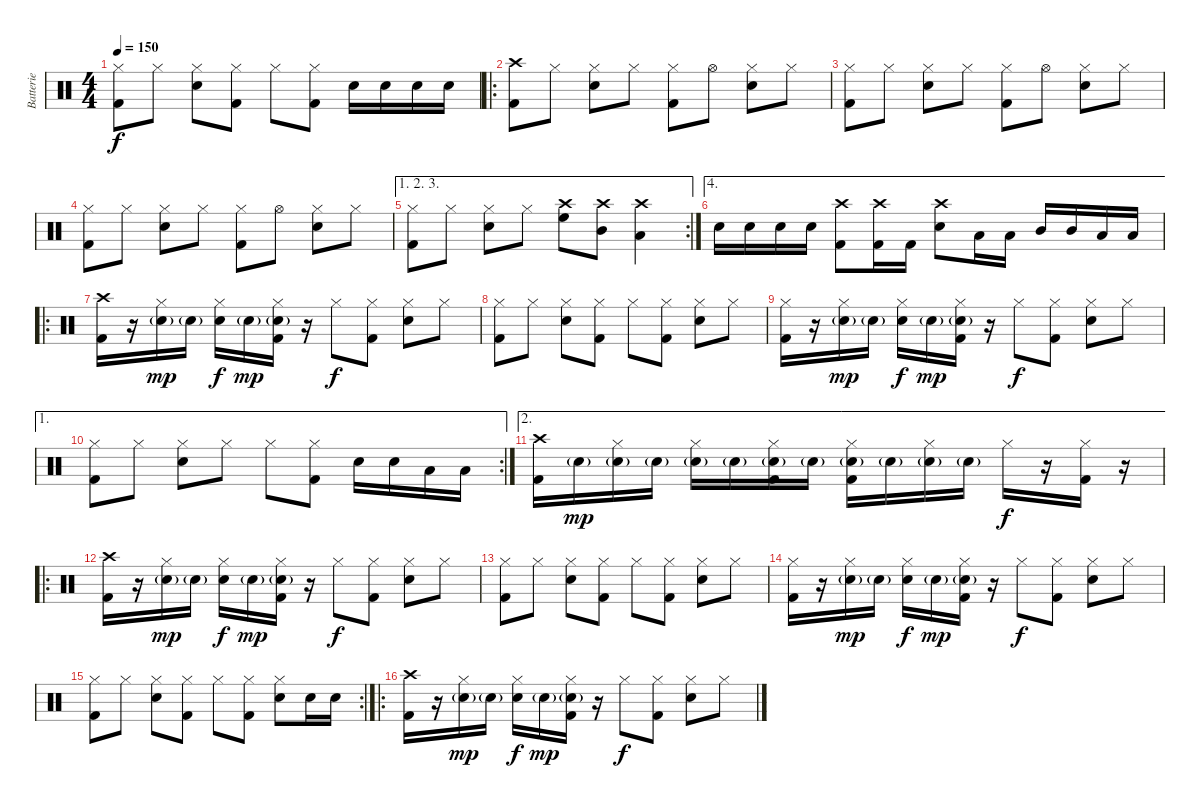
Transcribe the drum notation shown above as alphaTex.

\track ("Batterie" "Batterie") {instrument percussion}
\staff {score}
\articulation defaults
\ts (4 4)
\tempo 150
\clef neutral
\ks c
("Hi-Hat (closed)" "Kick (hit) 2").8{dy f} "Hi-Hat (closed)".8 ("Hi-Hat (closed)" "Snare (hit) 2").8 ("Hi-Hat (closed)" "Kick (hit) 2").8 "Hi-Hat (closed)".8 ("Hi-Hat (closed)" "Kick (hit) 2").8 "Snare (hit) 2".16 "Snare (hit) 2".16 "Snare (hit) 2".16 "Snare (hit) 2".16 |
\ro
("Crash high (hit)" "Kick (hit) 2").8 "Hi-Hat (closed)".8 ("Hi-Hat (closed)" "Snare (hit) 2").8 "Hi-Hat (closed)".8 ("Hi-Hat (closed)" "Kick (hit) 2").8 "Hi-Hat (open)".8 ("Hi-Hat (closed)" "Snare (hit) 2").8 "Hi-Hat (closed)".8 |
("Hi-Hat (closed)" "Kick (hit) 2").8 "Hi-Hat (closed)".8 ("Hi-Hat (closed)" "Snare (hit) 2").8 "Hi-Hat (closed)".8 ("Hi-Hat (closed)" "Kick (hit) 2").8 "Hi-Hat (open)".8 ("Hi-Hat (closed)" "Snare (hit) 2").8 "Hi-Hat (closed)".8 |
("Hi-Hat (closed)" "Kick (hit) 2").8 "Hi-Hat (closed)".8 ("Hi-Hat (closed)" "Snare (hit) 2").8 "Hi-Hat (closed)".8 ("Hi-Hat (closed)" "Kick (hit) 2").8 "Hi-Hat (open)".8 ("Hi-Hat (closed)" "Snare (hit) 2").8 "Hi-Hat (closed)".8 |
\ae (1 2 3)
\rc 2
("Hi-Hat (closed)" "Kick (hit) 2").8 "Hi-Hat (closed)".8 ("Hi-Hat (closed)" "Snare (hit) 2").8 "Hi-Hat (closed)".8 ("Crash high (hit)" "High Floor Tom (hit)").8 ("Crash high (hit)" "Mid Tom (hit)").8 ("Crash high (hit)" "Low Tom (hit)").4 |
\ae 4 "Snare (hit) 2".16 "Snare (hit) 2".16 "Snare (hit) 2".16 "Snare (hit) 2".16
("Crash high (hit)" "Kick (hit) 2").8 ("Crash high (hit)" "Kick (hit) 2").16 "Kick (hit) 2".16 ("Crash high (hit)" "Snare (hit) 2").8 "Low Floor Tom (hit)".16 "Low Floor Tom (hit)".16 "Mid Tom (hit)".16 "Mid Tom (hit)".16 "Low Tom (hit)".16 "Low Tom (hit)".16 |
\ro
("Crash high (hit)" "Kick (hit) 2").16 r.16 ("Hi-Hat (closed)" "Snare (hit) 2"{g}).16{dy mp} "Snare (hit) 2"{g}.16 ("Hi-Hat (closed)" "Snare (hit) 2").16{dy f} "Snare (hit) 2"{g}.16{dy mp} ("Hi-Hat (closed)" "Snare (hit) 2"{g} "Kick (hit) 2").16 r.16 "Hi-Hat (closed)".8{dy f} ("Hi-Hat (closed)" "Kick (hit) 2").8 ("Hi-Hat (closed)" "Snare (hit) 2").8 "Hi-Hat (closed)".8 |
("Hi-Hat (closed)" "Kick (hit) 2").8 "Hi-Hat (closed)".8 ("Hi-Hat (closed)" "Snare (hit) 2").8 ("Hi-Hat (closed)" "Kick (hit) 2").8 "Hi-Hat (closed)".8 ("Hi-Hat (closed)" "Kick (hit) 2").8 ("Hi-Hat (closed)" "Snare (hit) 2").8 "Hi-Hat (closed)".8 |
("Hi-Hat (closed)" "Kick (hit) 2").16 r.16 ("Hi-Hat (closed)" "Snare (hit) 2"{g}).16{dy mp} "Snare (hit) 2"{g}.16 ("Hi-Hat (closed)" "Snare (hit) 2").16{dy f} "Snare (hit) 2"{g}.16{dy mp} ("Hi-Hat (closed)" "Snare (hit) 2"{g} "Kick (hit) 2").16 r.16 "Hi-Hat (closed)".8{dy f} ("Hi-Hat (closed)" "Kick (hit) 2").8 ("Hi-Hat (closed)" "Snare (hit) 2").8 "Hi-Hat (closed)".8 |
\ae 1
\rc 2
("Hi-Hat (closed)" "Kick (hit) 2").8 "Hi-Hat (closed)".8 ("Hi-Hat (closed)" "Snare (hit) 2").8 "Hi-Hat (closed)".8 "Hi-Hat (closed)".8 ("Hi-Hat (closed)" "Kick (hit) 2").8 "Snare (hit) 2".16 "Snare (hit) 2".16 "Low Floor Tom (hit)".16 "Low Floor Tom (hit)".16 |
\ae 2
("Crash high (hit)" "Kick (hit) 2").16 "Snare (hit) 2"{g}.16{dy mp} ("Hi-Hat (closed)" "Snare (hit) 2"{g}).16 "Snare (hit) 2"{g}.16 ("Hi-Hat (closed)" "Snare (hit) 2"{g}).16 "Snare (hit) 2"{g}.16 ("Hi-Hat (closed)" "Snare (hit) 2"{g} "Kick (hit) 2").16 "Snare (hit) 2"{g}.16 ("Hi-Hat (closed)" "Snare (hit) 2"{g} "Kick (hit) 2").16 "Snare (hit) 2"{g}.16 ("Hi-Hat (closed)" "Snare (hit) 2"{g}).16 "Snare (hit) 2"{g}.16 "Hi-Hat (closed)".16{dy f} r.16 ("Hi-Hat (closed)" "Kick (hit) 2").16 r.16 |
\ro
("Crash high (hit)" "Kick (hit) 2").16 r.16 ("Hi-Hat (closed)" "Snare (hit) 2"{g}).16{dy mp} "Snare (hit) 2"{g}.16 ("Hi-Hat (closed)" "Snare (hit) 2").16{dy f} "Snare (hit) 2"{g}.16{dy mp} ("Hi-Hat (closed)" "Snare (hit) 2"{g} "Kick (hit) 2").16 r.16 "Hi-Hat (closed)".8{dy f} ("Hi-Hat (closed)" "Kick (hit) 2").8 ("Hi-Hat (closed)" "Snare (hit) 2").8 "Hi-Hat (closed)".8 |
("Hi-Hat (closed)" "Kick (hit) 2").8 "Hi-Hat (closed)".8 ("Hi-Hat (closed)" "Snare (hit) 2").8 ("Hi-Hat (closed)" "Kick (hit) 2").8 "Hi-Hat (closed)".8 ("Hi-Hat (closed)" "Kick (hit) 2").8 ("Hi-Hat (closed)" "Snare (hit) 2").8 "Hi-Hat (closed)".8 |
("Hi-Hat (closed)" "Kick (hit) 2").16 r.16 ("Hi-Hat (closed)" "Snare (hit) 2"{g}).16{dy mp} "Snare (hit) 2"{g}.16 ("Hi-Hat (closed)" "Snare (hit) 2").16{dy f} "Snare (hit) 2"{g}.16{dy mp} ("Hi-Hat (closed)" "Snare (hit) 2"{g} "Kick (hit) 2").16 r.16 "Hi-Hat (closed)".8{dy f} ("Hi-Hat (closed)" "Kick (hit) 2").8 ("Hi-Hat (closed)" "Snare (hit) 2").8 "Hi-Hat (closed)".8 |
\rc 2
("Hi-Hat (closed)" "Kick (hit) 2").8 "Hi-Hat (closed)".8 ("Hi-Hat (closed)" "Snare (hit) 2").8 ("Hi-Hat (closed)" "Kick (hit) 2").8 "Hi-Hat (closed)".8 ("Hi-Hat (closed)" "Kick (hit) 2").8 ("Hi-Hat (closed)" "Snare (hit) 2").8 "Snare (hit) 2".16 "Snare (hit) 2".16 |
\ro
("Crash high (hit)" "Kick (hit) 2").16 r.16 ("Hi-Hat (closed)" "Snare (hit) 2"{g}).16{dy mp} "Snare (hit) 2"{g}.16 ("Hi-Hat (closed)" "Snare (hit) 2").16{dy f} "Snare (hit) 2"{g}.16{dy mp} ("Hi-Hat (closed)" "Snare (hit) 2"{g} "Kick (hit) 2").16 r.16 "Hi-Hat (closed)".8{dy f} ("Hi-Hat (closed)" "Kick (hit) 2").8 ("Hi-Hat (closed)" "Snare (hit) 2").8 "Hi-Hat (closed)".8
